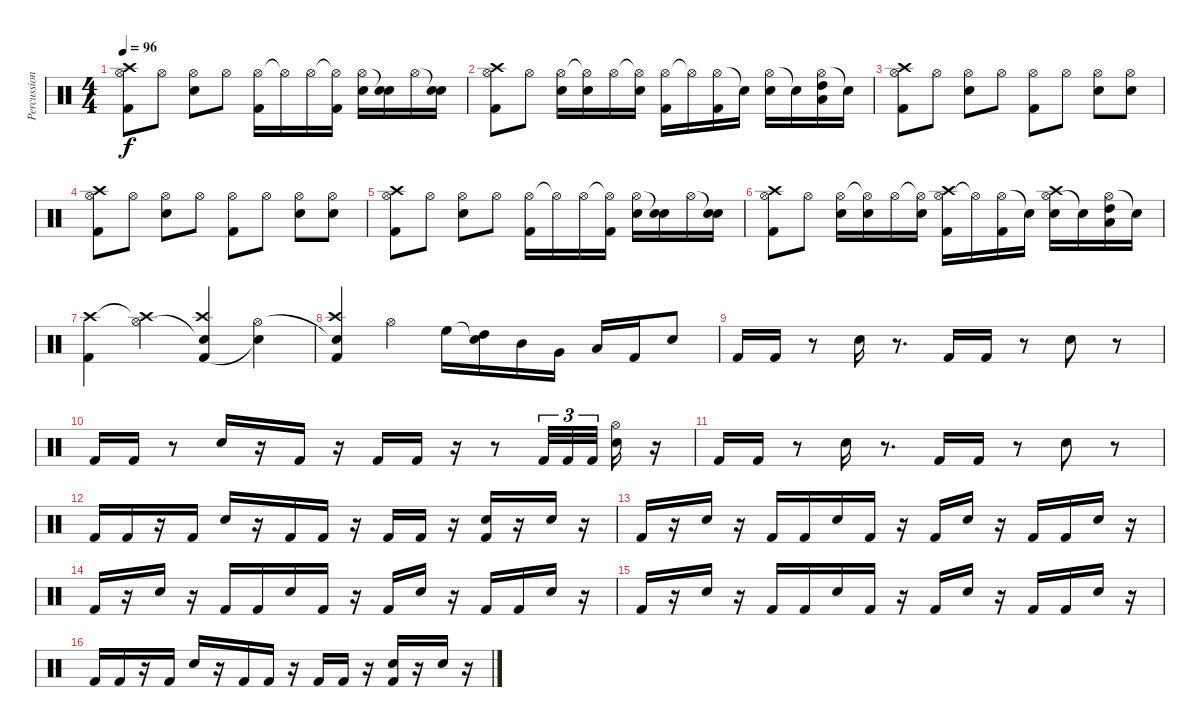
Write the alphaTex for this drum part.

\track ("Percussion" "Percussion") {instrument percussion}
\staff {score}
\articulation defaults
\ts (4 4)
\tempo 96
\clef neutral
\ks c
("Hi-Hat (open)" "Kick (hit) 2" "Crash high (hit)").8{dy f} "Hi-Hat (open)".8 ("Hi-Hat (open)" "Electric Snare (hit)").8 "Hi-Hat (open)".8 ("Hi-Hat (open)" "Kick (hit) 2").16 "Hi-Hat (open)"{t}.16 "Hi-Hat (open)".16 ("Hi-Hat (open)"{t} "Kick (hit) 2").16 ("Hi-Hat (open)" "Electric Snare (hit)").16 ("Snare (hit)"{t} "Electric Snare (hit)").16 "Hi-Hat (open)".16 ("Snare (hit)"{t} "Electric Snare (hit)").16 |
("Hi-Hat (open)" "Kick (hit) 2" "Crash high (hit)").8 "Hi-Hat (open)".8 ("Hi-Hat (open)" "Electric Snare (hit)").16 ("Hi-Hat (open)"{t} "Electric Snare (hit)").16 "Hi-Hat (open)".16 ("Hi-Hat (open)"{t} "Electric Snare (hit)").16 ("Hi-Hat (open)" "Kick (hit) 2").16 "Hi-Hat (open)"{t}.16 ("Hi-Hat (open)" "Kick (hit) 2").16 "Snare (hit)"{t}.16 ("Hi-Hat (open)" "Electric Snare (hit)").16 "Snare (hit)"{t}.16 ("Hi-Hat (open)" "High Tom (hit)" "Low Tom (hit)").16 "Snare (hit)"{t}.16 |
("Hi-Hat (open)" "Kick (hit) 2" "Crash high (hit)").8 "Hi-Hat (open)".8 ("Hi-Hat (open)" "Electric Snare (hit)").8 "Hi-Hat (open)".8 ("Hi-Hat (open)" "Kick (hit) 2").8 "Hi-Hat (open)".8 ("Hi-Hat (open)" "Electric Snare (hit)").8 ("Hi-Hat (open)" "Electric Snare (hit)").8 |
("Hi-Hat (open)" "Kick (hit) 2" "Crash high (hit)").8 "Hi-Hat (open)".8 ("Hi-Hat (open)" "Electric Snare (hit)").8 "Hi-Hat (open)".8 ("Hi-Hat (open)" "Kick (hit) 2").8 "Hi-Hat (open)".8 ("Hi-Hat (open)" "Electric Snare (hit)").8 ("Hi-Hat (open)" "Electric Snare (hit)").8 |
("Hi-Hat (open)" "Kick (hit) 2" "Crash high (hit)").8 "Hi-Hat (open)".8 ("Hi-Hat (open)" "Electric Snare (hit)").8 "Hi-Hat (open)".8 ("Hi-Hat (open)" "Kick (hit) 2").16 "Hi-Hat (open)"{t}.16 "Hi-Hat (open)".16 ("Hi-Hat (open)"{t} "Kick (hit) 2").16 ("Hi-Hat (open)" "Electric Snare (hit)").16 ("Snare (hit)"{t} "Electric Snare (hit)").16 "Hi-Hat (open)".16 ("Snare (hit)"{t} "Electric Snare (hit)").16 |
("Hi-Hat (open)" "Kick (hit) 2" "Crash high (hit)").8 "Hi-Hat (open)".8 ("Hi-Hat (open)" "Electric Snare (hit)").16 ("Hi-Hat (open)"{t} "Electric Snare (hit)").16 "Hi-Hat (open)".16 ("Hi-Hat (open)"{t} "Electric Snare (hit)").16 ("Hi-Hat (open)" "Kick (hit) 2" "Crash high (hit)").16 "Hi-Hat (open)"{t}.16 ("Hi-Hat (open)" "Kick (hit) 2").16 "Snare (hit)"{t}.16 ("Hi-Hat (open)" "Electric Snare (hit)" "Crash high (hit)").16 "Snare (hit)"{t}.16 ("Hi-Hat (open)" "High Tom (hit)" "Low Tom (hit)").16 "Snare (hit)"{t}.16 |
("Kick (hit) 2" "Crash high (hit)").4 ("Hi-Hat (open)" "Crash high (hit)"{t}).4 ("Snare (hit)"{t} "Kick (hit) 2" "Crash high (hit)").4 ("Hi-Hat (open)" "Snare (hit)"{t}).4 |
("Snare (hit)"{t} "Kick (hit) 2" "Crash high (hit)").4 "Hi-Hat (open)".4 "High Floor Tom (hit)".16 ("Snare (hit)"{t} "High Tom (hit)").16 "Mid Tom (hit)".16 "Very Low Tom (hit)".16 "Low Tom (hit)".16 "Kick (hit) 2".16 "Electric Snare (hit)".8 |
"Kick (hit) 2".16 "Kick (hit) 2".16 r.8 "Electric Snare (hit)".16 r.8{d} "Kick (hit) 2".16 "Kick (hit) 2".16 r.8 "Electric Snare (hit)".8 r.8 |
"Kick (hit) 2".16 "Kick (hit) 2".16 r.8 "Electric Snare (hit)".16 r.16 "Kick (hit) 2".16 r.16 "Kick (hit) 2".16 "Kick (hit) 2".16 r.16 r.8 "Kick (hit) 2".32{tu (3 2)} "Kick (hit) 2".32{tu (3 2)} "Kick (hit) 2".32{tu (3 2)} ("Hi-Hat (open)" "Electric Snare (hit)").16 r.16 |
"Kick (hit) 2".16 "Kick (hit) 2".16 r.8 "Electric Snare (hit)".16 r.8{d} "Kick (hit) 2".16 "Kick (hit) 2".16 r.8 "Electric Snare (hit)".8 r.8 |
"Kick (hit) 2".16 "Kick (hit) 2".16 r.16 "Kick (hit) 2".16 "Electric Snare (hit)".16 r.16 "Kick (hit) 2".16 "Kick (hit) 2".16 r.16 "Kick (hit) 2".16 "Kick (hit) 2".16 r.16 ("Kick (hit) 2" "Electric Snare (hit)").16 r.16 "Electric Snare (hit)".16 r.16 |
"Kick (hit) 2".16 r.16 "Electric Snare (hit)".16 r.16 "Kick (hit) 2".16 "Kick (hit) 2".16 "Electric Snare (hit)".16 "Kick (hit) 2".16 r.16 "Kick (hit) 2".16 "Electric Snare (hit)".16 r.16 "Kick (hit) 2".16 "Kick (hit) 2".16 "Electric Snare (hit)".16 r.16 |
"Kick (hit) 2".16 r.16 "Electric Snare (hit)".16 r.16 "Kick (hit) 2".16 "Kick (hit) 2".16 "Electric Snare (hit)".16 "Kick (hit) 2".16 r.16 "Kick (hit) 2".16 "Electric Snare (hit)".16 r.16 "Kick (hit) 2".16 "Kick (hit) 2".16 "Electric Snare (hit)".16 r.16 |
"Kick (hit) 2".16 r.16 "Electric Snare (hit)".16 r.16 "Kick (hit) 2".16 "Kick (hit) 2".16 "Electric Snare (hit)".16 "Kick (hit) 2".16 r.16 "Kick (hit) 2".16 "Electric Snare (hit)".16 r.16 "Kick (hit) 2".16 "Kick (hit) 2".16 "Electric Snare (hit)".16 r.16 |
"Kick (hit) 2".16 "Kick (hit) 2".16 r.16 "Kick (hit) 2".16 "Electric Snare (hit)".16 r.16 "Kick (hit) 2".16 "Kick (hit) 2".16 r.16 "Kick (hit) 2".16 "Kick (hit) 2".16 r.16 ("Kick (hit) 2" "Electric Snare (hit)").16 r.16 "Electric Snare (hit)".16 r.16
